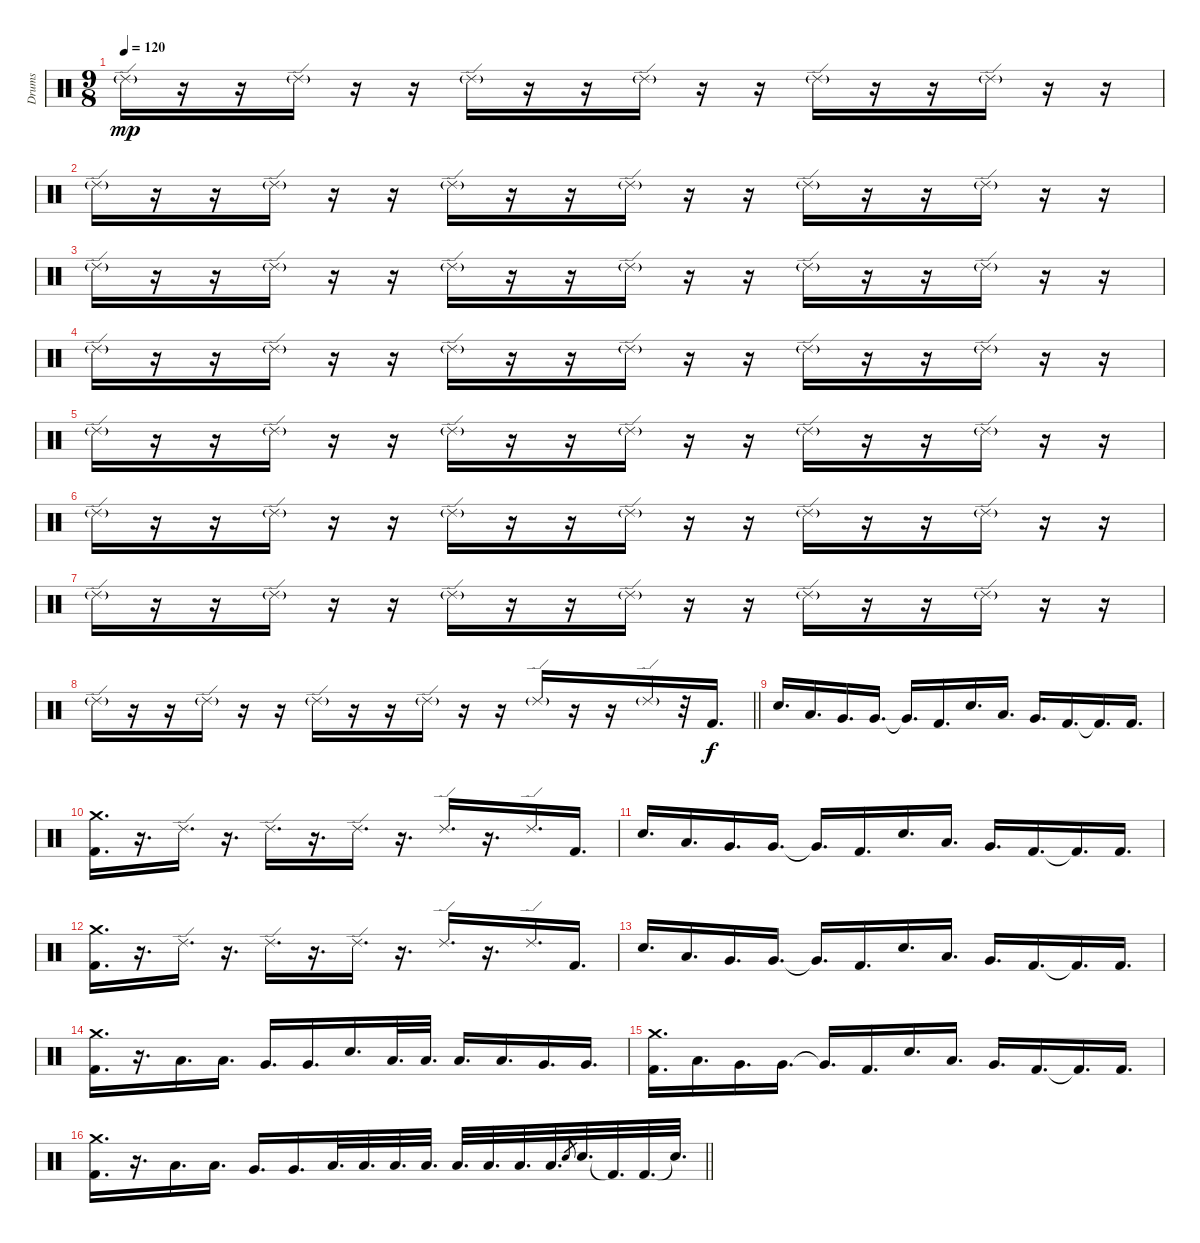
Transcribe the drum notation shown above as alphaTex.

\track ("Drums" "Drums") {instrument percussion}
\staff {score}
\articulation defaults
\ts (9 8)
\tempo 120
\clef neutral
\ks c "Ride (edge) 2"{g}.16{dy mp volume 10}
r.16 r.16 "Ride (edge) 2"{g}.16 r.16 r.16 "Ride (edge) 2"{g}.16 r.16 r.16 "Ride (edge) 2"{g}.16 r.16 r.16 "Ride (edge) 2"{g}.16 r.16 r.16 "Ride (edge) 2"{g}.16 r.16 r.16 |
"Ride (edge) 2"{g}.16 r.16 r.16 "Ride (edge) 2"{g}.16 r.16 r.16 "Ride (edge) 2"{g}.16 r.16 r.16 "Ride (edge) 2"{g}.16 r.16 r.16 "Ride (edge) 2"{g}.16 r.16 r.16 "Ride (edge) 2"{g}.16 r.16 r.16 |
"Ride (edge) 2"{g}.16 r.16 r.16 "Ride (edge) 2"{g}.16 r.16 r.16 "Ride (edge) 2"{g}.16 r.16 r.16 "Ride (edge) 2"{g}.16 r.16 r.16 "Ride (edge) 2"{g}.16 r.16 r.16 "Ride (edge) 2"{g}.16 r.16 r.16 |
"Ride (edge) 2"{g}.16 r.16 r.16 "Ride (edge) 2"{g}.16 r.16 r.16 "Ride (edge) 2"{g}.16 r.16 r.16 "Ride (edge) 2"{g}.16 r.16 r.16 "Ride (edge) 2"{g}.16 r.16 r.16 "Ride (edge) 2"{g}.16 r.16 r.16 |
"Ride (edge) 2"{g}.16 r.16 r.16 "Ride (edge) 2"{g}.16 r.16 r.16 "Ride (edge) 2"{g}.16 r.16 r.16 "Ride (edge) 2"{g}.16 r.16 r.16 "Ride (edge) 2"{g}.16 r.16 r.16 "Ride (edge) 2"{g}.16 r.16 r.16 |
"Ride (edge) 2"{g}.16 r.16 r.16 "Ride (edge) 2"{g}.16 r.16 r.16 "Ride (edge) 2"{g}.16 r.16 r.16 "Ride (edge) 2"{g}.16 r.16 r.16 "Ride (edge) 2"{g}.16 r.16 r.16 "Ride (edge) 2"{g}.16 r.16 r.16 |
"Ride (edge) 2"{g}.16 r.16 r.16 "Ride (edge) 2"{g}.16 r.16 r.16 "Ride (edge) 2"{g}.16 r.16 r.16 "Ride (edge) 2"{g}.16 r.16 r.16 "Ride (edge) 2"{g}.16 r.16 r.16 "Ride (edge) 2"{g}.16 r.16 r.16 |
\barLineRight lightlight "Ride (edge) 2"{g}.16
r.16 r.16 "Ride (edge) 2"{g}.16 r.16 r.16 "Ride (edge) 2"{g}.16 r.16 r.16 "Ride (edge) 2"{g}.16 r.16 r.16 "Ride (edge) 2"{g}.16 r.16 r.16 "Ride (edge) 2"{g}.16 r.32 "Kick (hit) 2".16{d dy f volume 16} |
\section ("" "")
"Electric Snare (hit)".16{d} "Low Tom (hit)".16{d} "Very Low Tom (hit)".16{d} "Very Low Tom (hit)".16{d} "Very Low Tom (hit)"{t}.16{d} "Kick (hit) 2".16{d} "Electric Snare (hit)".16{d} "Low Tom (hit)".16{d} "Very Low Tom (hit)".16{d} "Kick (hit) 2".16{d} "Kick (hit) 2"{t}.16{d} "Kick (hit) 2".16{d} |
("Crash medium (hit)" "Kick (hit) 2").16{d} r.16{d} "Ride (edge) 2".16{d} r.16{d} "Ride (edge) 2".16{d} r.16{d} "Ride (edge) 2".16{d} r.16{d} "Ride (edge) 2".16{d} r.16{d} "Ride (edge) 2".16{d} "Kick (hit) 2".16{d} |
"Electric Snare (hit)".16{d} "Low Tom (hit)".16{d} "Very Low Tom (hit)".16{d} "Very Low Tom (hit)".16{d} "Very Low Tom (hit)"{t}.16{d} "Kick (hit) 2".16{d} "Electric Snare (hit)".16{d} "Low Tom (hit)".16{d} "Very Low Tom (hit)".16{d} "Kick (hit) 2".16{d} "Kick (hit) 2"{t}.16{d} "Kick (hit) 2".16{d} |
("Crash medium (hit)" "Kick (hit) 2").16{d} r.16{d} "Ride (edge) 2".16{d} r.16{d} "Ride (edge) 2".16{d} r.16{d} "Ride (edge) 2".16{d} r.16{d} "Ride (edge) 2".16{d} r.16{d} "Ride (edge) 2".16{d} "Kick (hit) 2".16{d} |
"Electric Snare (hit)".16{d} "Low Tom (hit)".16{d} "Very Low Tom (hit)".16{d} "Very Low Tom (hit)".16{d} "Very Low Tom (hit)"{t}.16{d} "Kick (hit) 2".16{d} "Electric Snare (hit)".16{d} "Low Tom (hit)".16{d} "Very Low Tom (hit)".16{d} "Kick (hit) 2".16{d} "Kick (hit) 2"{t}.16{d} "Kick (hit) 2".16{d} |
("Crash medium (hit)" "Kick (hit) 2").16{d} r.16{d} "Low Tom (hit)".16{d} "Low Tom (hit)".16{d} "Very Low Tom (hit)".16{d} "Very Low Tom (hit)".16{d} "Electric Snare (hit)".16{d} "Low Tom (hit)".32{d} "Low Tom (hit)".32{d} "Low Tom (hit)".16{d} "Low Tom (hit)".16{d} "Very Low Tom (hit)".16{d} "Very Low Tom (hit)".16{d} |
("Crash medium (hit)" "Kick (hit) 2").16{d} "Low Tom (hit)".16{d} "Very Low Tom (hit)".16{d} "Very Low Tom (hit)".16{d} "Very Low Tom (hit)"{t}.16{d} "Kick (hit) 2".16{d} "Electric Snare (hit)".16{d} "Low Tom (hit)".16{d} "Very Low Tom (hit)".16{d} "Kick (hit) 2".16{d} "Kick (hit) 2"{t}.16{d} "Kick (hit) 2".16{d} |
\barLineRight lightlight
("Crash medium (hit)" "Kick (hit) 2").16{d} r.16{d} "Low Tom (hit)".16{d} "Low Tom (hit)".16{d} "Very Low Tom (hit)".16{d} "Very Low Tom (hit)".16{d} "Low Tom (hit)".32{d} "Low Tom (hit)".32{d} "Low Tom (hit)".32{d} "Low Tom (hit)".32{d} "Low Tom (hit)".32{d} "Low Tom (hit)".32{d} "Low Tom (hit)".32{d} "Low Tom (hit)".32{d} "Electric Snare (hit)".8{gr} "Electric Snare (hit)".32{d} "Kick (hit) 2"{t}.32{d} "Kick (hit) 2".32{d} "Snare (hit)"{t}.32{d}
